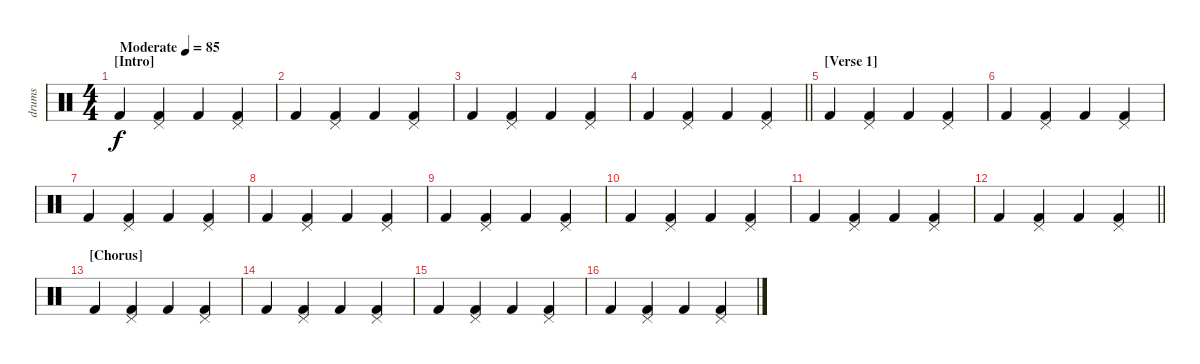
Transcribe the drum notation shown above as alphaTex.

\track ("drums" "drums") {instrument percussion}
\staff {score}
\articulation defaults
\ts (4 4)
\section ("" "[Intro]")
\tempo (85 "Moderate")
\clef neutral
\ks c "Kick (hit) 2".4{dy f}
("Pedal Hi-Hat (hit)" "Kick (hit) 2").4 "Kick (hit) 2".4 ("Pedal Hi-Hat (hit)" "Kick (hit) 2").4 |
"Kick (hit) 2".4 ("Pedal Hi-Hat (hit)" "Kick (hit) 2").4 "Kick (hit) 2".4 ("Pedal Hi-Hat (hit)" "Kick (hit) 2").4 |
"Kick (hit) 2".4 ("Pedal Hi-Hat (hit)" "Kick (hit) 2").4 "Kick (hit) 2".4 ("Pedal Hi-Hat (hit)" "Kick (hit) 2").4 |
\barLineRight lightlight "Kick (hit) 2".4
("Pedal Hi-Hat (hit)" "Kick (hit) 2").4 "Kick (hit) 2".4 ("Pedal Hi-Hat (hit)" "Kick (hit) 2").4 |
\section ("" "[Verse 1]")
"Kick (hit) 2".4 ("Pedal Hi-Hat (hit)" "Kick (hit) 2").4 "Kick (hit) 2".4 ("Pedal Hi-Hat (hit)" "Kick (hit) 2").4 |
"Kick (hit) 2".4 ("Pedal Hi-Hat (hit)" "Kick (hit) 2").4 "Kick (hit) 2".4 ("Pedal Hi-Hat (hit)" "Kick (hit) 2").4 |
"Kick (hit) 2".4 ("Pedal Hi-Hat (hit)" "Kick (hit) 2").4 "Kick (hit) 2".4 ("Pedal Hi-Hat (hit)" "Kick (hit) 2").4 |
"Kick (hit) 2".4 ("Pedal Hi-Hat (hit)" "Kick (hit) 2").4 "Kick (hit) 2".4 ("Pedal Hi-Hat (hit)" "Kick (hit) 2").4 |
"Kick (hit) 2".4 ("Pedal Hi-Hat (hit)" "Kick (hit) 2").4 "Kick (hit) 2".4 ("Pedal Hi-Hat (hit)" "Kick (hit) 2").4 |
"Kick (hit) 2".4 ("Pedal Hi-Hat (hit)" "Kick (hit) 2").4 "Kick (hit) 2".4 ("Pedal Hi-Hat (hit)" "Kick (hit) 2").4 |
"Kick (hit) 2".4 ("Pedal Hi-Hat (hit)" "Kick (hit) 2").4 "Kick (hit) 2".4 ("Pedal Hi-Hat (hit)" "Kick (hit) 2").4 |
\barLineRight lightlight "Kick (hit) 2".4
("Pedal Hi-Hat (hit)" "Kick (hit) 2").4 "Kick (hit) 2".4 ("Pedal Hi-Hat (hit)" "Kick (hit) 2").4 |
\section ("" "[Chorus]")
"Kick (hit) 2".4 ("Pedal Hi-Hat (hit)" "Kick (hit) 2").4 "Kick (hit) 2".4 ("Pedal Hi-Hat (hit)" "Kick (hit) 2").4 |
"Kick (hit) 2".4 ("Pedal Hi-Hat (hit)" "Kick (hit) 2").4 "Kick (hit) 2".4 ("Pedal Hi-Hat (hit)" "Kick (hit) 2").4 |
"Kick (hit) 2".4 ("Pedal Hi-Hat (hit)" "Kick (hit) 2").4 "Kick (hit) 2".4 ("Pedal Hi-Hat (hit)" "Kick (hit) 2").4 |
"Kick (hit) 2".4 ("Pedal Hi-Hat (hit)" "Kick (hit) 2").4 "Kick (hit) 2".4 ("Pedal Hi-Hat (hit)" "Kick (hit) 2").4
